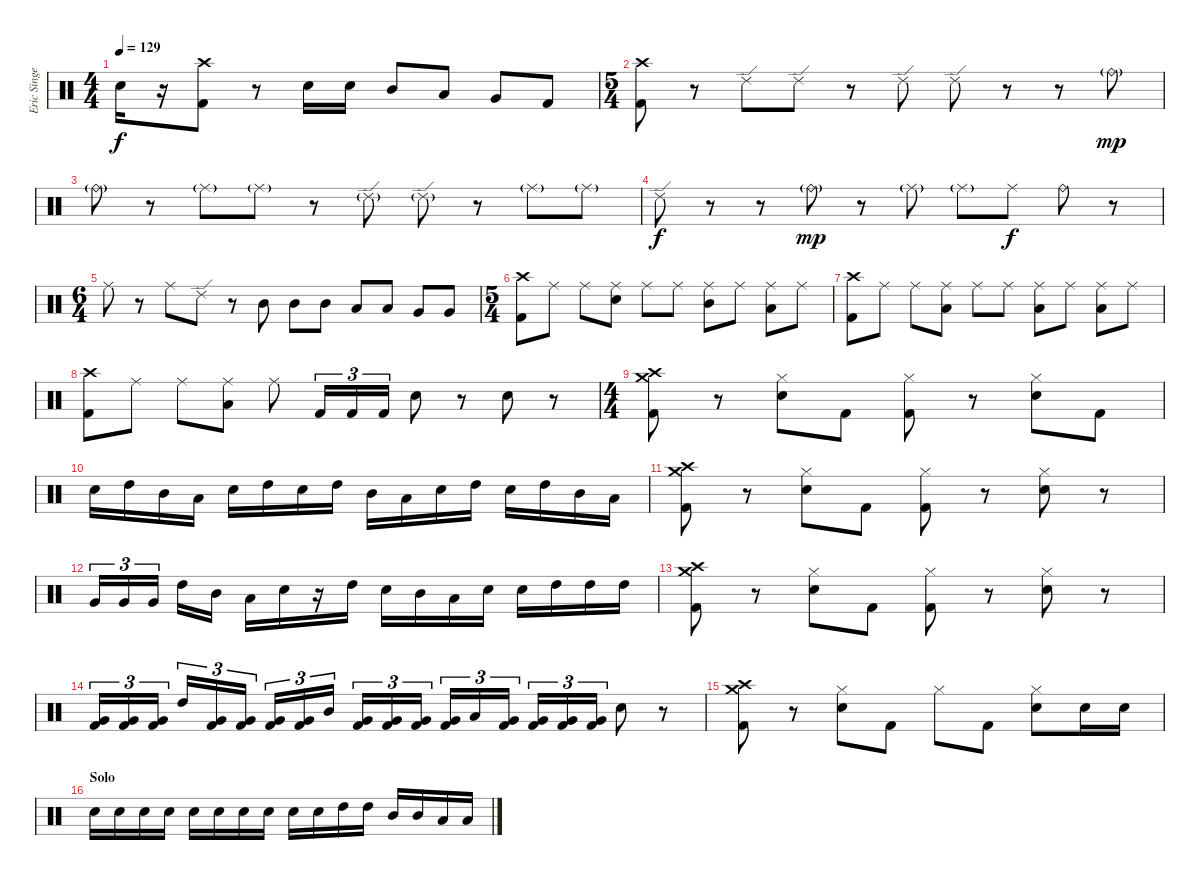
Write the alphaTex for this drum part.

\track ("Eric Singer" "Eric Singe") {instrument percussion}
\staff {score}
\articulation defaults
\ts (4 4)
\tempo 129
\clef neutral
\ks c "Electric Snare (hit)".16{dy f}
r.16 ("Crash high (hit)" "Kick (hit) 2").8 r.8 "Electric Snare (hit)".16 "Electric Snare (hit)".16 "Mid Tom (hit)".8 "Low Tom (hit)".8 "Very Low Tom (hit)".8 "Kick (hit) 2".8 |
\ts (5 4)
("Crash high (hit)" "Kick (hit) 2").8 r.8 "Ride (edge) 2".8 "Ride (edge) 2".8 r.8 "Ride (edge) 2".8 "Ride (edge) 2".8 r.8 r.8 "Ride (bell)"{g}.8{dy mp} |
"Ride (bell)"{g}.8 r.8 "Ride (middle)"{g}.8 "Ride (middle)"{g}.8 r.8 "Ride (edge) 2"{g}.8 "Ride (edge) 2"{g}.8 r.8 "Ride (middle)"{g}.8 "Ride (middle)"{g}.8 |
"Ride (edge) 2".8{dy f} r.8 r.8 "Ride (bell)"{g}.8{dy mp} r.8 "Ride (middle)"{g}.8 "Ride (middle)"{g}.8 "Ride (middle)".8{dy f} "Ride (bell)".8 r.8 |
\ts (6 4)
"Ride (middle)".8 r.8 "Ride (middle)".8 "Ride (edge) 2".8 r.8 "Mid Tom (hit)".8 "Mid Tom (hit)".8 "Mid Tom (hit)".8 "Low Tom (hit)".8 "Low Tom (hit)".8 "Very Low Tom (hit)".8 "Very Low Tom (hit)".8 |
\ts (5 4)
("Crash high (hit)" "Kick (hit) 2").8 "Ride (middle)".8 "Ride (middle)".8 ("Ride (middle)" "Electric Snare (hit)").8 "Ride (middle)".8 "Ride (middle)".8 ("Ride (middle)" "Mid Tom (hit)").8 "Ride (middle)".8 ("Ride (middle)" "Low Tom (hit)").8 "Ride (middle)".8 |
("Crash high (hit)" "Kick (hit) 2").8 "Ride (middle)".8 "Ride (middle)".8 ("Ride (middle)" "Low Tom (hit)").8 "Ride (middle)".8 "Ride (middle)".8 ("Ride (middle)" "Low Tom (hit)").8 "Ride (middle)".8 ("Ride (middle)" "Low Floor Tom (hit)").8 "Ride (middle)".8 |
("Crash high (hit)" "Kick (hit) 2").8 "Ride (middle)".8 "Ride (middle)".8 ("Ride (middle)" "Low Floor Tom (hit)").8 "Ride (middle)".8 "Kick (hit) 2".16{tu (3 2)} "Kick (hit) 2".16{tu (3 2)} "Kick (hit) 2".16{tu (3 2)} "Electric Snare (hit)".8 r.8 "Electric Snare (hit)".8 r.8 |
\ts (4 4)
("Crash high (hit)" "Crash medium (hit)" "Kick (hit) 2").8 r.8 ("Hi-Hat (closed)" "Electric Snare (hit)").8 "Kick (hit) 2".8 ("Hi-Hat (closed)" "Kick (hit) 2").8 r.8 ("Hi-Hat (closed)" "Electric Snare (hit)").8 "Kick (hit) 2".8 |
"Electric Snare (hit)".16 "High Tom (hit)".16 "Mid Tom (hit)".16 "Low Tom (hit)".16 "Electric Snare (hit)".16 "High Tom (hit)".16 "Electric Snare (hit)".16 "High Tom (hit)".16 "Mid Tom (hit)".16 "Low Tom (hit)".16 "Electric Snare (hit)".16 "High Tom (hit)".16 "Electric Snare (hit)".16 "High Tom (hit)".16 "Mid Tom (hit)".16 "Low Tom (hit)".16 |
("Crash high (hit)" "Crash medium (hit)" "Kick (hit) 2").8 r.8 ("Hi-Hat (closed)" "Electric Snare (hit)").8 "Kick (hit) 2".8 ("Hi-Hat (closed)" "Kick (hit) 2").8 r.8 ("Hi-Hat (closed)" "Electric Snare (hit)").8 r.8 |
"Very Low Tom (hit)".16{tu (3 2)} "Very Low Tom (hit)".16{tu (3 2)} "Very Low Tom (hit)".16{tu (3 2)} "High Tom (hit)".16 "Mid Tom (hit)".16 "Low Tom (hit)".16 "Electric Snare (hit)".16 r.16 "High Tom (hit)".16 "Electric Snare (hit)".16 "Mid Tom (hit)".16 "Low Tom (hit)".16 "Electric Snare (hit)".16 "Electric Snare (hit)".16 "High Tom (hit)".16 "High Tom (hit)".16 "High Tom (hit)".16 |
("Crash high (hit)" "Crash medium (hit)" "Kick (hit) 2").8 r.8 ("Hi-Hat (closed)" "Electric Snare (hit)").8 "Kick (hit) 2".8 ("Hi-Hat (closed)" "Kick (hit) 2").8 r.8 ("Hi-Hat (closed)" "Electric Snare (hit)").8 r.8 |
("Very Low Tom (hit)" "Kick (hit) 2").16{tu (3 2)} ("Very Low Tom (hit)" "Kick (hit) 2").16{tu (3 2)} ("Very Low Tom (hit)" "Kick (hit) 2").16{tu (3 2)} "High Tom (hit)".16{tu (3 2)} ("Very Low Tom (hit)" "Kick (hit) 2").16{tu (3 2)} ("Very Low Tom (hit)" "Kick (hit) 2").16{tu (3 2)} ("Very Low Tom (hit)" "Kick (hit) 2").16{tu (3 2)} ("Very Low Tom (hit)" "Kick (hit) 2").16{tu (3 2)} "Mid Tom (hit)".16{tu (3 2)} ("Very Low Tom (hit)" "Kick (hit) 2").16{tu (3 2)} ("Very Low Tom (hit)" "Kick (hit) 2").16{tu (3 2)} ("Very Low Tom (hit)" "Kick (hit) 2").16{tu (3 2)} ("Very Low Tom (hit)" "Kick (hit) 2").16{tu (3 2)} "Low Tom (hit)".16{tu (3 2)} ("Very Low Tom (hit)" "Kick (hit) 2").16{tu (3 2)} ("Very Low Tom (hit)" "Kick (hit) 2").16{tu (3 2)} ("Very Low Tom (hit)" "Kick (hit) 2").16{tu (3 2)} ("Very Low Tom (hit)" "Kick (hit) 2").16{tu (3 2)} "Electric Snare (hit)".8 r.8 |
("Crash high (hit)" "Crash medium (hit)" "Kick (hit) 2").8 r.8 ("Hi-Hat (closed)" "Electric Snare (hit)").8 "Kick (hit) 2".8 "Hi-Hat (closed)".8 "Kick (hit) 2".8 ("Hi-Hat (closed)" "Electric Snare (hit)").8 "Electric Snare (hit)".16 "Electric Snare (hit)".16 |
\section ("" "Solo")
"Electric Snare (hit)".16 "Electric Snare (hit)".16 "Electric Snare (hit)".16 "Electric Snare (hit)".16 "Electric Snare (hit)".16 "Electric Snare (hit)".16 "Electric Snare (hit)".16 "Electric Snare (hit)".16 "Electric Snare (hit)".16 "Electric Snare (hit)".16 "High Tom (hit)".16 "High Tom (hit)".16 "Mid Tom (hit)".16 "Mid Tom (hit)".16 "Low Tom (hit)".16 "Low Tom (hit)".16
